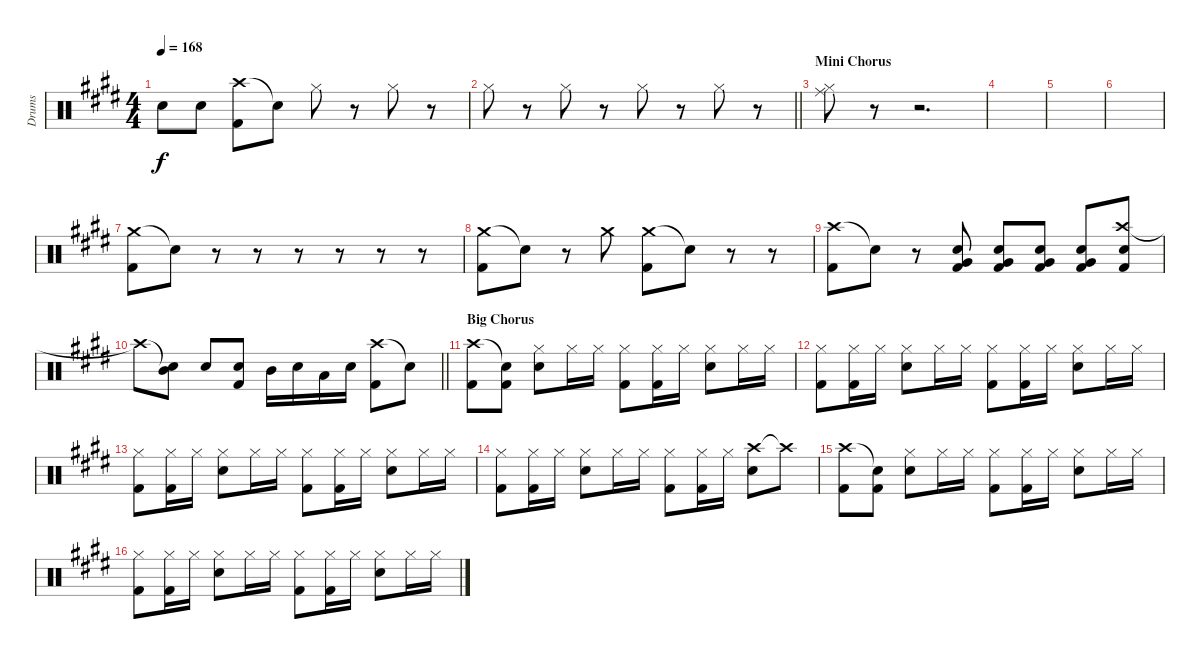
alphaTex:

\track ("Drums" "Drums") {instrument percussion}
\staff {score}
\articulation defaults
\ts (4 4)
\tempo 168
\clef neutral
\ks e "Snare (hit)"{t}.8{dy f} "Snare (hit) 2".8
("Crash high (hit)" "Kick (hit) 2").8 "Snare (hit)"{t}.8 "Hi-Hat (closed)".8 r.8 "Hi-Hat (closed)".8 r.8 |
\barLineRight lightlight "Hi-Hat (closed)".8
r.8 "Hi-Hat (closed)".8 r.8 "Hi-Hat (closed)".8 r.8 "Hi-Hat (closed)".8 r.8 |
\section ("" "Mini Chorus")
("Hi-Hat (closed)" "Ride (middle)").8 r.8 r.2{d} |
|
|
|
("Crash medium (hit)" "Kick (hit) 2").8 "Snare (hit)"{t}.8 r.8 r.8 r.8 r.8 r.8 r.8 |
("Crash medium (hit)" "Kick (hit) 2").8 "Snare (hit)"{t}.8 r.8 "Crash medium (hit)".8 ("Crash medium (hit)" "Kick (hit) 2").8 "Snare (hit)"{t}.8 r.8 r.8 |
("Crash high (hit)" "Kick (hit) 2").8 "Snare (hit)"{t}.8 r.8 ("Snare (hit) 2" "Very Low Tom (hit)" "Kick (hit) 2").8 ("Snare (hit) 2" "Very Low Tom (hit)" "Kick (hit) 2").8 ("Snare (hit) 2" "Very Low Tom (hit)" "Kick (hit) 2").8 ("Snare (hit) 2" "Very Low Tom (hit)" "Kick (hit) 2").8 ("Crash high (hit)" "Snare (hit) 2" "Kick (hit) 2").8 |
\barLineRight lightlight "Crash high (hit)"{t}.8
("Mid Tom (hit)"{t} "Snare (hit) 2").8 "Snare (hit) 2".8 ("Snare (hit) 2" "Kick (hit) 2").8 "Mid Tom (hit)".16 "Snare (hit) 2".16 "Low Tom (hit)".16 "Snare (hit) 2".16 ("Crash high (hit)" "Kick (hit) 2").8 "Snare (hit)"{t}.8 |
\section ("" "Big Chorus")
("Crash high (hit)" "Kick (hit) 2").8 ("Snare (hit)"{t} "Kick (hit) 2").8 ("Hi-Hat (closed)" "Snare (hit) 2").8 "Hi-Hat (closed)".16 "Hi-Hat (closed)".16 ("Hi-Hat (closed)" "Kick (hit) 2").8 ("Hi-Hat (closed)" "Kick (hit) 2").16 "Hi-Hat (closed)".16 ("Hi-Hat (closed)" "Snare (hit) 2").8 "Hi-Hat (closed)".16 "Hi-Hat (closed)".16 |
("Hi-Hat (closed)" "Kick (hit) 2").8 ("Hi-Hat (closed)" "Kick (hit) 2").16 "Hi-Hat (closed)".16 ("Hi-Hat (closed)" "Snare (hit) 2").8 "Hi-Hat (closed)".16 "Hi-Hat (closed)".16 ("Hi-Hat (closed)" "Kick (hit) 2").8 ("Hi-Hat (closed)" "Kick (hit) 2").16 "Hi-Hat (closed)".16 ("Hi-Hat (closed)" "Snare (hit) 2").8 "Hi-Hat (closed)".16 "Hi-Hat (closed)".16 |
("Hi-Hat (closed)" "Kick (hit) 2").8 ("Hi-Hat (closed)" "Kick (hit) 2").16 "Hi-Hat (closed)".16 ("Hi-Hat (closed)" "Snare (hit) 2").8 "Hi-Hat (closed)".16 "Hi-Hat (closed)".16 ("Hi-Hat (closed)" "Kick (hit) 2").8 ("Hi-Hat (closed)" "Kick (hit) 2").16 "Hi-Hat (closed)".16 ("Hi-Hat (closed)" "Snare (hit) 2").8 "Hi-Hat (closed)".16 "Hi-Hat (closed)".16 |
("Hi-Hat (closed)" "Kick (hit) 2").8 ("Hi-Hat (closed)" "Kick (hit) 2").16 "Hi-Hat (closed)".16 ("Hi-Hat (closed)" "Snare (hit) 2").8 "Hi-Hat (closed)".16 "Hi-Hat (closed)".16 ("Hi-Hat (closed)" "Kick (hit) 2").8 ("Hi-Hat (closed)" "Kick (hit) 2").16 "Hi-Hat (closed)".16 ("Crash high (hit)" "Snare (hit) 2").8 "Crash high (hit)"{t}.8 |
("Crash high (hit)" "Kick (hit) 2").8 ("Snare (hit)"{t} "Kick (hit) 2").8 ("Hi-Hat (closed)" "Snare (hit) 2").8 "Hi-Hat (closed)".16 "Hi-Hat (closed)".16 ("Hi-Hat (closed)" "Kick (hit) 2").8 ("Hi-Hat (closed)" "Kick (hit) 2").16 "Hi-Hat (closed)".16 ("Hi-Hat (closed)" "Snare (hit) 2").8 "Hi-Hat (closed)".16 "Hi-Hat (closed)".16 |
("Hi-Hat (closed)" "Kick (hit) 2").8 ("Hi-Hat (closed)" "Kick (hit) 2").16 "Hi-Hat (closed)".16 ("Hi-Hat (closed)" "Snare (hit) 2").8 "Hi-Hat (closed)".16 "Hi-Hat (closed)".16 ("Hi-Hat (closed)" "Kick (hit) 2").8 ("Hi-Hat (closed)" "Kick (hit) 2").16 "Hi-Hat (closed)".16 ("Hi-Hat (closed)" "Snare (hit) 2").8 "Hi-Hat (closed)".16 "Hi-Hat (closed)".16
